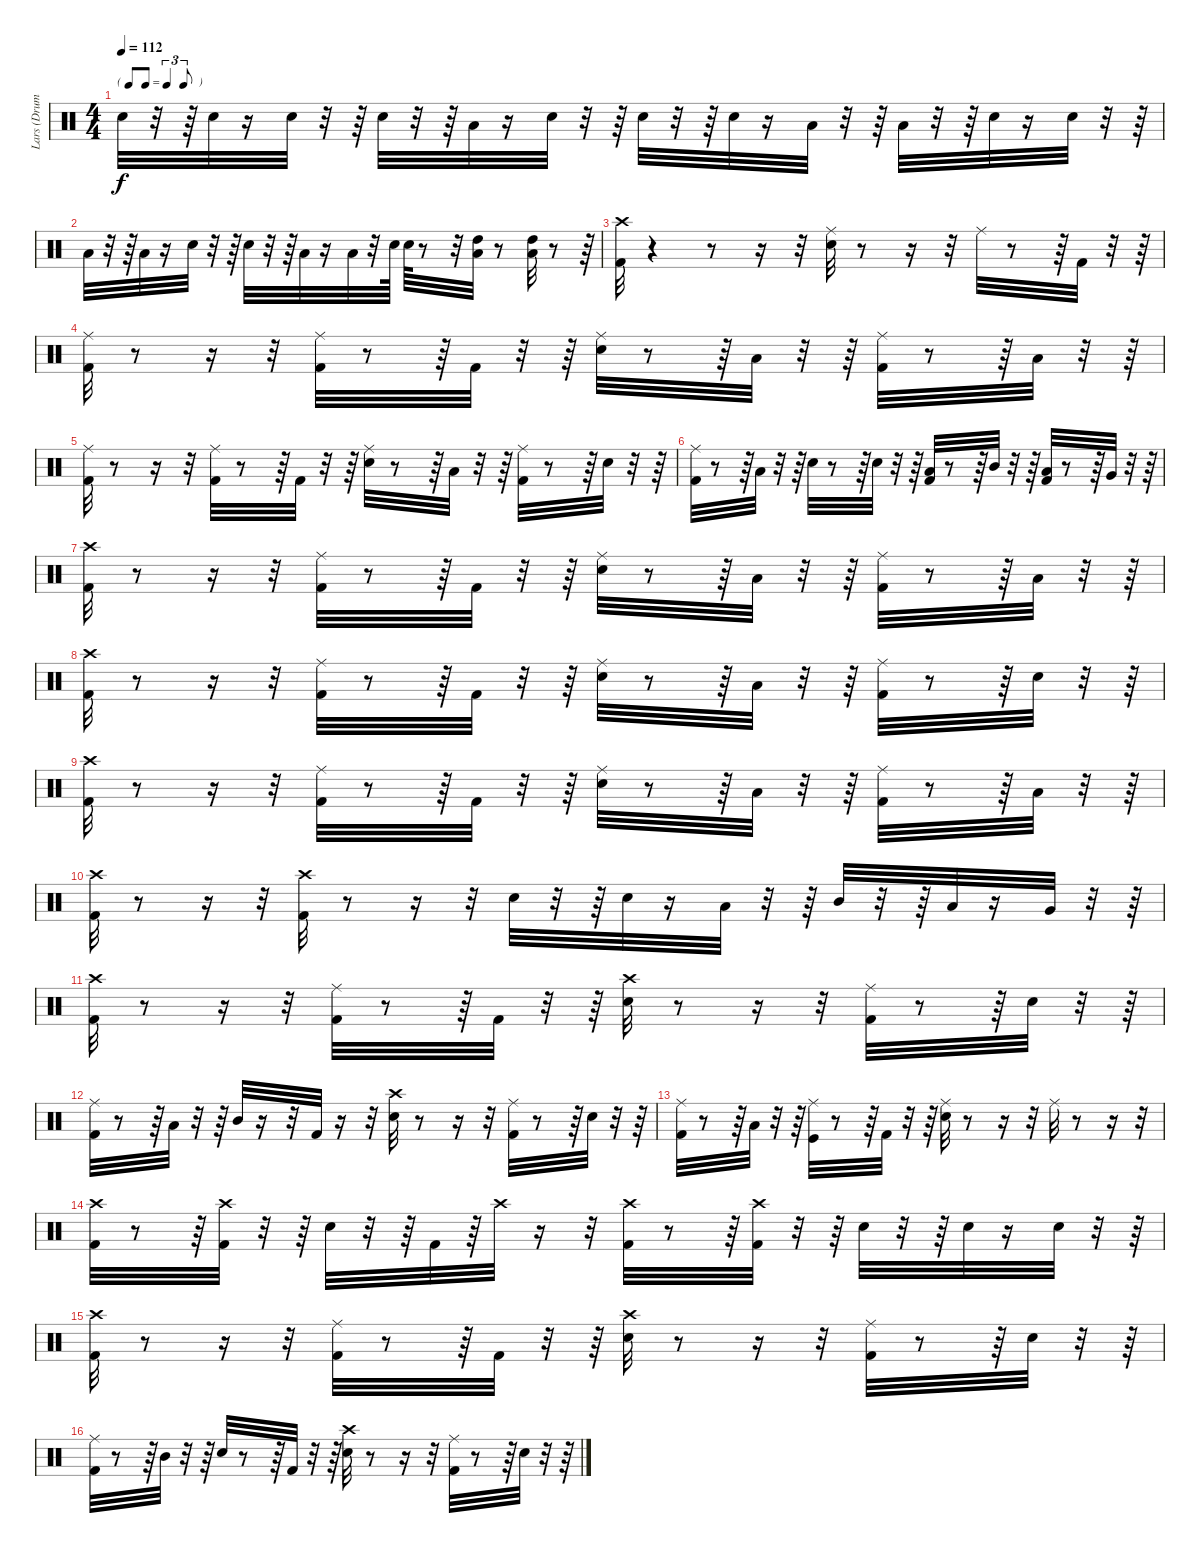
\track ("Lars (Drums)" "Lars (Drum") {instrument percussion}
\staff {score}
\articulation defaults
\ts (4 4)
\tf triplet8th
\tempo 112
\clef neutral
\ks c "Snare (hit) 2".32{dy f}
r.32 r.64 "Snare (hit) 2".32 r.16 "Snare (hit) 2".32 r.32 r.64 "Snare (hit) 2".32 r.32 r.64 "Low Tom (hit)".32 r.16 "Snare (hit) 2".32 r.32 r.64 "Snare (hit) 2".32 r.32 r.64 "Snare (hit) 2".32 r.16 "Low Tom (hit)".32 r.32 r.64 "Low Tom (hit)".32 r.32 r.64 "Snare (hit) 2".32 r.16 "Snare (hit) 2".32 r.32 r.64 |
"Low Tom (hit)".32 r.32 r.64 "Low Tom (hit)".32 r.16 "Snare (hit) 2".32 r.32 r.64 "Snare (hit) 2".32 r.32 r.64 "Low Tom (hit)".32 r.16 "Low Tom (hit)".32 r.32 "Snare (hit) 2".64 "Snare (hit) 2".64 r.8 r.32 ("High Tom (hit)" "Low Tom (hit)").32 r.8 ("High Tom (hit)" "Low Tom (hit)").32 r.8 r.64 |
("Kick (hit) 2" "Crash high (hit)").32 r.4 r.8 r.16 r.32 ("Ride (middle)" "Snare (hit) 2").32 r.8 r.16 r.32 "Ride (middle)".32 r.8 r.64 "Kick (hit) 2".32 r.32 r.64 |
("Ride (middle)" "Kick (hit) 2").32 r.8 r.16 r.32 ("Ride (middle)" "Kick (hit) 2").32 r.8 r.64 "Kick (hit) 2".32 r.32 r.64 ("Snare (hit) 2" "Ride (middle)").32 r.8 r.64 "Low Tom (hit)".32 r.32 r.64 ("Kick (hit) 2" "Ride (middle)").32 r.8 r.64 "Low Tom (hit)".32 r.32 r.64 |
("Ride (middle)" "Kick (hit) 2").32 r.8 r.16 r.32 ("Ride (middle)" "Kick (hit) 2").32 r.8 r.64 "Kick (hit) 2".32 r.32 r.64 ("Snare (hit) 2" "Ride (middle)").32 r.8 r.64 "Low Tom (hit)".32 r.32 r.64 ("Ride (middle)" "Kick (hit) 2").32 r.8 r.64 "Snare (hit) 2".32 r.32 r.64 |
("Ride (middle)" "Kick (hit) 2").32 r.8 r.64 "Low Tom (hit)".32 r.32 r.64 "Snare (hit) 2".32 r.8 r.64 "Snare (hit) 2".32 r.32 r.64 ("Low Tom (hit)" "Kick (hit) 2").32 r.8 r.64 "Mid Tom (hit)".32 r.32 r.64 ("Low Floor Tom (hit)" "Kick (hit) 2").32 r.8 r.64 "Very Low Tom (hit)".32 r.32 r.64 |
("Crash high (hit)" "Kick (hit) 2").32 r.8 r.16 r.32 ("Ride (middle)" "Kick (hit) 2").32 r.8 r.64 "Kick (hit) 2".32 r.32 r.64 ("Snare (hit) 2" "Ride (middle)").32 r.8 r.64 "Low Tom (hit)".32 r.32 r.64 ("Kick (hit) 2" "Ride (middle)").32 r.8 r.64 "Low Tom (hit)".32 r.32 r.64 |
("Crash high (hit)" "Kick (hit) 2").32 r.8 r.16 r.32 ("Ride (middle)" "Kick (hit) 2").32 r.8 r.64 "Kick (hit) 2".32 r.32 r.64 ("Snare (hit) 2" "Ride (middle)").32 r.8 r.64 "Low Tom (hit)".32 r.32 r.64 ("Ride (middle)" "Kick (hit) 2").32 r.8 r.64 "Snare (hit) 2".32 r.32 r.64 |
("Kick (hit) 2" "Crash high (hit)").32 r.8 r.16 r.32 ("Ride (middle)" "Kick (hit) 2").32 r.8 r.64 "Kick (hit) 2".32 r.32 r.64 ("Snare (hit) 2" "Ride (middle)").32 r.8 r.64 "Low Tom (hit)".32 r.32 r.64 ("Kick (hit) 2" "Ride (middle)").32 r.8 r.64 "Low Tom (hit)".32 r.32 r.64 |
("Crash high (hit)" "Kick (hit) 2").32 r.8 r.16 r.32 ("Crash high (hit)" "Kick (hit) 2").32 r.8 r.16 r.32 "Snare (hit) 2".32 r.32 r.64 "Snare (hit) 2".32 r.16 "Low Tom (hit)".32 r.32 r.64 "Mid Tom (hit)".32 r.32 r.64 "Low Floor Tom (hit)".32 r.16 "Very Low Tom (hit)".32 r.32 r.64 |
("Crash high (hit)" "Kick (hit) 2").32 r.8 r.16 r.32 ("Ride (middle)" "Kick (hit) 2").32 r.8 r.64 "Kick (hit) 2".32 r.32 r.64 ("Snare (hit) 2" "Crash high (hit)").32 r.8 r.16 r.32 ("Ride (middle)" "Kick (hit) 2").32 r.8 r.64 "Snare (hit) 2".32 r.32 r.64 |
("Ride (middle)" "Kick (hit) 2").32 r.8 r.64 "Low Tom (hit)".32 r.32 r.64 "Mid Tom (hit)".32 r.16 r.32 "Kick (hit) 2".32 r.16 r.32 ("Crash high (hit)" "Snare (hit) 2").32 r.8 r.16 r.32 ("Ride (middle)" "Kick (hit) 2").32 r.8 r.64 "Snare (hit) 2".32 r.32 r.64 |
("Ride (middle)" "Kick (hit) 2").32 r.8 r.64 "Low Tom (hit)".32 r.32 r.64 ("Ride (middle)" "Kick (hit)").32 r.8 r.64 "Kick (hit) 2".32 r.32 r.64 ("Snare (hit) 2" "Ride (middle)").32 r.8 r.16 r.32 "Ride (middle)".32 r.8 r.16 r.32 |
("Crash high (hit)" "Kick (hit) 2").32 r.8 r.64 ("Crash high (hit)" "Kick (hit) 2").32 r.32 r.64 "Snare (hit) 2".32 r.32 r.64 "Kick (hit) 2".32 r.64 "Crash high (hit)".32 r.16 r.32 ("Crash high (hit)" "Kick (hit) 2").32 r.8 r.64 ("Kick (hit) 2" "Crash high (hit)").32 r.32 r.64 "Snare (hit) 2".32 r.32 r.64 "Snare (hit) 2".32 r.16 "Snare (hit) 2".32 r.32 r.64 |
("Crash high (hit)" "Kick (hit) 2").32 r.8 r.16 r.32 ("Ride (middle)" "Kick (hit) 2").32 r.8 r.64 "Kick (hit) 2".32 r.32 r.64 ("Snare (hit) 2" "Crash high (hit)").32 r.8 r.16 r.32 ("Ride (middle)" "Kick (hit) 2").32 r.8 r.64 "Snare (hit) 2".32 r.32 r.64 |
("Ride (middle)" "Kick (hit) 2").32 r.8 r.64 "Mid Tom (hit)".32 r.32 r.64 "Snare (hit) 2".32 r.8 r.64 "Kick (hit) 2".32 r.32 r.64 ("Crash high (hit)" "Snare (hit) 2").32 r.8 r.16 r.32 ("Ride (middle)" "Kick (hit) 2").32 r.8 r.64 "Snare (hit) 2".32 r.32 r.64
